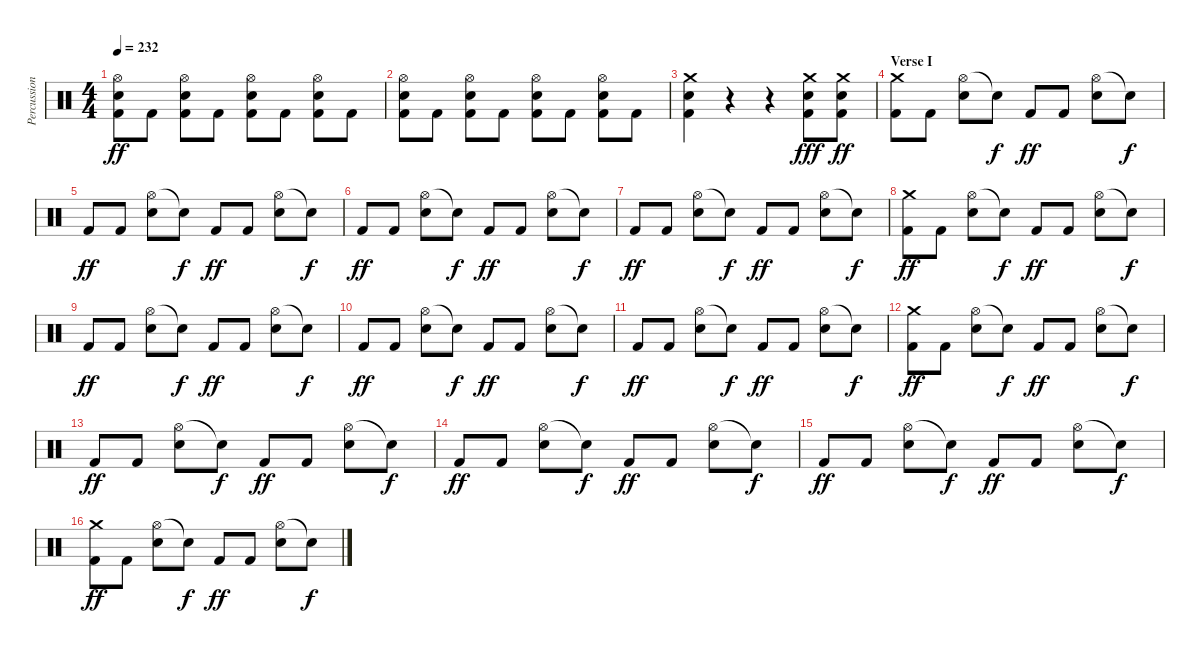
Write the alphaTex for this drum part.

\track ("Percussion" "Percussion") {instrument percussion}
\staff {score}
\articulation defaults
\ts (4 4)
\tempo 232
\clef neutral
\ks c
("Hi-Hat (open)" "Snare (hit) 2" "Kick (hit) 2").8{dy ff} "Kick (hit) 2".8 ("Hi-Hat (open)" "Snare (hit) 2" "Kick (hit) 2").8 "Kick (hit) 2".8 ("Hi-Hat (open)" "Snare (hit) 2" "Kick (hit) 2").8 "Kick (hit) 2".8 ("Hi-Hat (open)" "Snare (hit) 2" "Kick (hit) 2").8 "Kick (hit) 2".8 |
("Hi-Hat (open)" "Snare (hit) 2" "Kick (hit) 2").8 "Kick (hit) 2".8 ("Hi-Hat (open)" "Snare (hit) 2" "Kick (hit) 2").8 "Kick (hit) 2".8 ("Hi-Hat (open)" "Snare (hit) 2" "Kick (hit) 2").8 "Kick (hit) 2".8 ("Hi-Hat (open)" "Snare (hit) 2" "Kick (hit) 2").8 "Kick (hit) 2".8 |
("Crash medium (hit)" "Snare (hit) 2" "Kick (hit) 2").4 r.4 r.4 ("Crash medium (hit)" "Snare (hit) 2" "Kick (hit) 2").8{dy fff} ("Crash medium (hit)" "Snare (hit) 2" "Kick (hit) 2").8{dy ff} |
\section ("" "Verse I")
("Crash medium (hit)" "Kick (hit) 2").8 "Kick (hit) 2".8 ("Hi-Hat (open)" "Snare (hit) 2").8 "Snare (hit)"{t}.8{dy f} "Kick (hit) 2".8{dy ff} "Kick (hit) 2".8 ("Hi-Hat (open)" "Snare (hit) 2").8 "Snare (hit)"{t}.8{dy f} |
"Kick (hit) 2".8{dy ff} "Kick (hit) 2".8 ("Hi-Hat (open)" "Snare (hit) 2").8 "Snare (hit)"{t}.8{dy f} "Kick (hit) 2".8{dy ff} "Kick (hit) 2".8 ("Hi-Hat (open)" "Snare (hit) 2").8 "Snare (hit)"{t}.8{dy f} |
"Kick (hit) 2".8{dy ff} "Kick (hit) 2".8 ("Hi-Hat (open)" "Snare (hit) 2").8 "Snare (hit)"{t}.8{dy f} "Kick (hit) 2".8{dy ff} "Kick (hit) 2".8 ("Hi-Hat (open)" "Snare (hit) 2").8 "Snare (hit)"{t}.8{dy f} |
"Kick (hit) 2".8{dy ff} "Kick (hit) 2".8 ("Hi-Hat (open)" "Snare (hit) 2").8 "Snare (hit)"{t}.8{dy f} "Kick (hit) 2".8{dy ff} "Kick (hit) 2".8 ("Hi-Hat (open)" "Snare (hit) 2").8 "Snare (hit)"{t}.8{dy f} |
("Crash medium (hit)" "Kick (hit) 2").8{dy ff} "Kick (hit) 2".8 ("Hi-Hat (open)" "Snare (hit) 2").8 "Snare (hit)"{t}.8{dy f} "Kick (hit) 2".8{dy ff} "Kick (hit) 2".8 ("Hi-Hat (open)" "Snare (hit) 2").8 "Snare (hit)"{t}.8{dy f} |
"Kick (hit) 2".8{dy ff} "Kick (hit) 2".8 ("Hi-Hat (open)" "Snare (hit) 2").8 "Snare (hit)"{t}.8{dy f} "Kick (hit) 2".8{dy ff} "Kick (hit) 2".8 ("Hi-Hat (open)" "Snare (hit) 2").8 "Snare (hit)"{t}.8{dy f} |
"Kick (hit) 2".8{dy ff} "Kick (hit) 2".8 ("Hi-Hat (open)" "Snare (hit) 2").8 "Snare (hit)"{t}.8{dy f} "Kick (hit) 2".8{dy ff} "Kick (hit) 2".8 ("Hi-Hat (open)" "Snare (hit) 2").8 "Snare (hit)"{t}.8{dy f} |
"Kick (hit) 2".8{dy ff} "Kick (hit) 2".8 ("Hi-Hat (open)" "Snare (hit) 2").8 "Snare (hit)"{t}.8{dy f} "Kick (hit) 2".8{dy ff} "Kick (hit) 2".8 ("Hi-Hat (open)" "Snare (hit) 2").8 "Snare (hit)"{t}.8{dy f} |
("Crash medium (hit)" "Kick (hit) 2").8{dy ff} "Kick (hit) 2".8 ("Hi-Hat (open)" "Snare (hit) 2").8 "Snare (hit)"{t}.8{dy f} "Kick (hit) 2".8{dy ff} "Kick (hit) 2".8 ("Hi-Hat (open)" "Snare (hit) 2").8 "Snare (hit)"{t}.8{dy f} |
"Kick (hit) 2".8{dy ff} "Kick (hit) 2".8 ("Hi-Hat (open)" "Snare (hit) 2").8 "Snare (hit)"{t}.8{dy f} "Kick (hit) 2".8{dy ff} "Kick (hit) 2".8 ("Hi-Hat (open)" "Snare (hit) 2").8 "Snare (hit)"{t}.8{dy f} |
"Kick (hit) 2".8{dy ff} "Kick (hit) 2".8 ("Hi-Hat (open)" "Snare (hit) 2").8 "Snare (hit)"{t}.8{dy f} "Kick (hit) 2".8{dy ff} "Kick (hit) 2".8 ("Hi-Hat (open)" "Snare (hit) 2").8 "Snare (hit)"{t}.8{dy f} |
"Kick (hit) 2".8{dy ff} "Kick (hit) 2".8 ("Hi-Hat (open)" "Snare (hit) 2").8 "Snare (hit)"{t}.8{dy f} "Kick (hit) 2".8{dy ff} "Kick (hit) 2".8 ("Hi-Hat (open)" "Snare (hit) 2").8 "Snare (hit)"{t}.8{dy f} |
("Crash medium (hit)" "Kick (hit) 2").8{dy ff} "Kick (hit) 2".8 ("Hi-Hat (open)" "Snare (hit) 2").8 "Snare (hit)"{t}.8{dy f} "Kick (hit) 2".8{dy ff} "Kick (hit) 2".8 ("Hi-Hat (open)" "Snare (hit) 2").8 "Snare (hit)"{t}.8{dy f}
